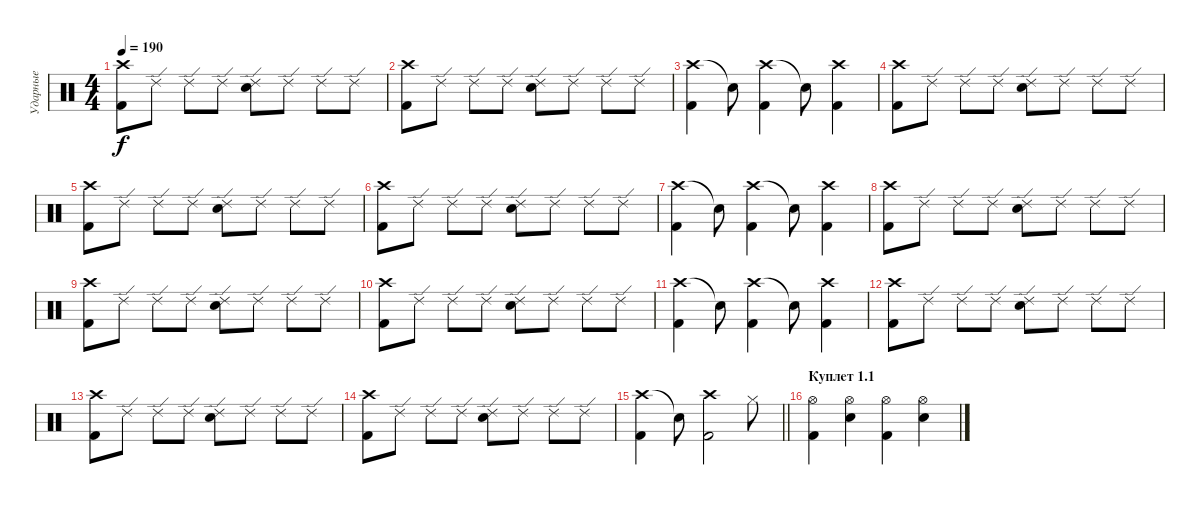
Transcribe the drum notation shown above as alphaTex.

\track ("Ударные" "Ударные") {instrument percussion}
\staff {score}
\articulation defaults
\ts (4 4)
\tempo 190
\clef neutral
\ks c
("Crash high (hit)" "Kick (hit) 2").8{dy f} "Ride (edge) 2".8 "Ride (edge) 2".8 "Ride (edge) 2".8 ("Electric Snare (hit)" "Ride (edge) 2").8 "Ride (edge) 2".8 "Ride (edge) 2".8 "Ride (edge) 2".8 |
("Crash high (hit)" "Kick (hit) 2").8 "Ride (edge) 2".8 "Ride (edge) 2".8 "Ride (edge) 2".8 ("Electric Snare (hit)" "Ride (edge) 2").8 "Ride (edge) 2".8 "Ride (edge) 2".8 "Ride (edge) 2".8 |
("Crash high (hit)" "Kick (hit) 2").4 "Snare (hit)"{t}.8 ("Crash high (hit)" "Kick (hit) 2").4 "Snare (hit)"{t}.8 ("Crash high (hit)" "Kick (hit) 2").4 |
("Crash high (hit)" "Kick (hit) 2").8 "Ride (edge) 2".8 "Ride (edge) 2".8 "Ride (edge) 2".8 ("Electric Snare (hit)" "Ride (edge) 2").8 "Ride (edge) 2".8 "Ride (edge) 2".8 "Ride (edge) 2".8 |
("Crash high (hit)" "Kick (hit) 2").8 "Ride (edge) 2".8 "Ride (edge) 2".8 "Ride (edge) 2".8 ("Electric Snare (hit)" "Ride (edge) 2").8 "Ride (edge) 2".8 "Ride (edge) 2".8 "Ride (edge) 2".8 |
("Crash high (hit)" "Kick (hit) 2").8 "Ride (edge) 2".8 "Ride (edge) 2".8 "Ride (edge) 2".8 ("Electric Snare (hit)" "Ride (edge) 2").8 "Ride (edge) 2".8 "Ride (edge) 2".8 "Ride (edge) 2".8 |
("Crash high (hit)" "Kick (hit) 2").4 "Snare (hit)"{t}.8 ("Crash high (hit)" "Kick (hit) 2").4 "Snare (hit)"{t}.8 ("Crash high (hit)" "Kick (hit) 2").4 |
("Crash high (hit)" "Kick (hit) 2").8 "Ride (edge) 2".8 "Ride (edge) 2".8 "Ride (edge) 2".8 ("Electric Snare (hit)" "Ride (edge) 2").8 "Ride (edge) 2".8 "Ride (edge) 2".8 "Ride (edge) 2".8 |
("Crash high (hit)" "Kick (hit) 2").8 "Ride (edge) 2".8 "Ride (edge) 2".8 "Ride (edge) 2".8 ("Electric Snare (hit)" "Ride (edge) 2").8 "Ride (edge) 2".8 "Ride (edge) 2".8 "Ride (edge) 2".8 |
("Crash high (hit)" "Kick (hit) 2").8 "Ride (edge) 2".8 "Ride (edge) 2".8 "Ride (edge) 2".8 ("Electric Snare (hit)" "Ride (edge) 2").8 "Ride (edge) 2".8 "Ride (edge) 2".8 "Ride (edge) 2".8 |
("Crash high (hit)" "Kick (hit) 2").4 "Snare (hit)"{t}.8 ("Crash high (hit)" "Kick (hit) 2").4 "Snare (hit)"{t}.8 ("Crash high (hit)" "Kick (hit) 2").4 |
("Crash high (hit)" "Kick (hit) 2").8 "Ride (edge) 2".8 "Ride (edge) 2".8 "Ride (edge) 2".8 ("Electric Snare (hit)" "Ride (edge) 2").8 "Ride (edge) 2".8 "Ride (edge) 2".8 "Ride (edge) 2".8 |
("Crash high (hit)" "Kick (hit) 2").8 "Ride (edge) 2".8 "Ride (edge) 2".8 "Ride (edge) 2".8 ("Electric Snare (hit)" "Ride (edge) 2").8 "Ride (edge) 2".8 "Ride (edge) 2".8 "Ride (edge) 2".8 |
("Crash high (hit)" "Kick (hit) 2").8 "Ride (edge) 2".8 "Ride (edge) 2".8 "Ride (edge) 2".8 ("Electric Snare (hit)" "Ride (edge) 2").8 "Ride (edge) 2".8 "Ride (edge) 2".8 "Ride (edge) 2".8 |
\barLineRight lightlight
("Crash high (hit)" "Kick (hit) 2").4 "Snare (hit)"{t}.8 ("Crash high (hit)" "Kick (hit) 2").2 "Hi-Hat (closed)".8 |
\section ("" "Куплет 1.1")
("Hi-Hat (open)" "Kick (hit) 2").4 ("Hi-Hat (open)" "Electric Snare (hit)").4 ("Hi-Hat (open)" "Kick (hit) 2").4 ("Hi-Hat (open)" "Electric Snare (hit)").4
